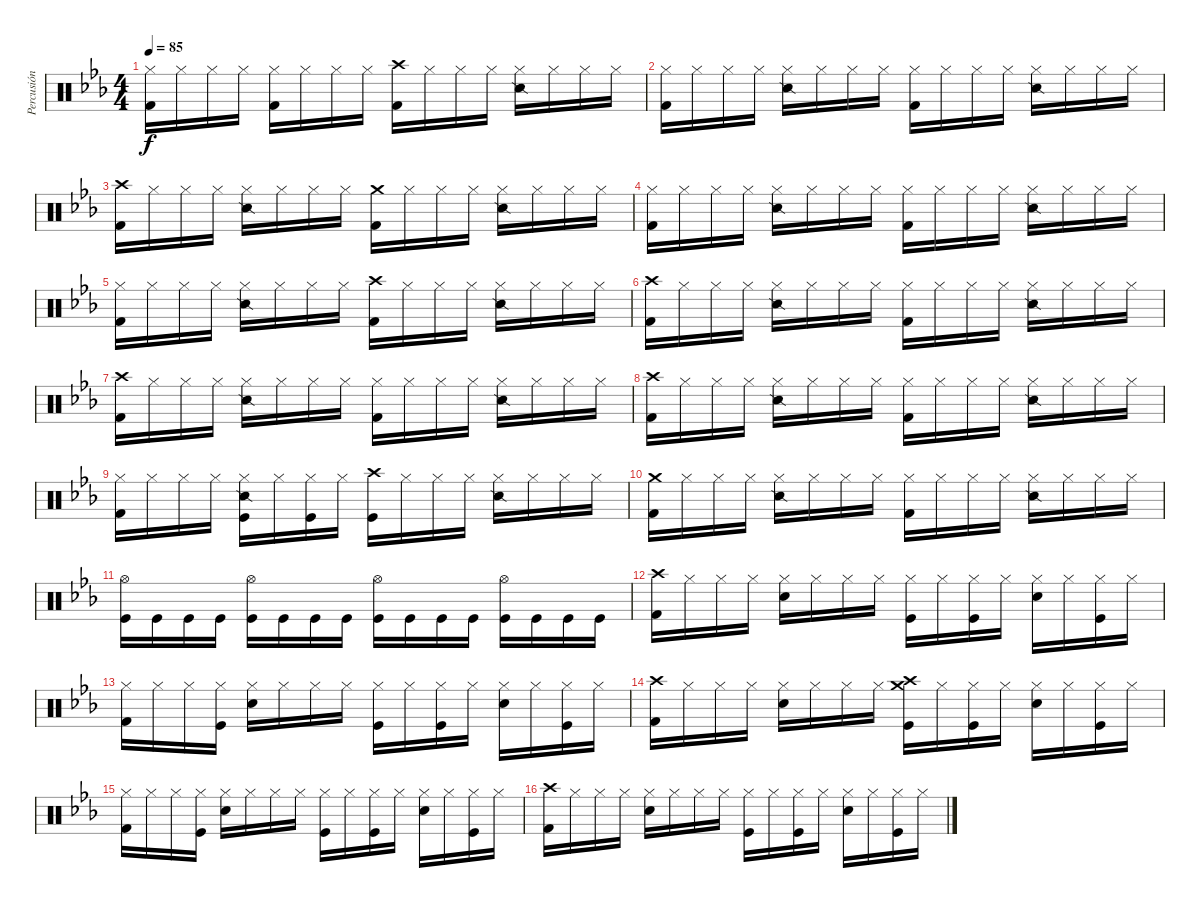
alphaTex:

\track ("Percusión" "Percusión") {instrument percussion}
\staff {score}
\articulation defaults
\ts (4 4)
\tempo 85
\clef neutral
\ks eb
("Hi-Hat (closed)" "Kick (hit) 2").16{dy f} "Hi-Hat (closed)".16 "Hi-Hat (closed)".16 "Hi-Hat (closed)".16 ("Hi-Hat (closed)" "Kick (hit) 2").16 "Hi-Hat (closed)".16 "Hi-Hat (closed)".16 "Hi-Hat (closed)".16 ("Crash high (hit)" "Kick (hit) 2").16 "Hi-Hat (closed)".16 "Hi-Hat (closed)".16 "Hi-Hat (closed)".16 ("Hi-Hat (closed)" "Snare (side stick) 2").16 "Hi-Hat (closed)".16 "Hi-Hat (closed)".16 "Hi-Hat (closed)".16 |
("Hi-Hat (closed)" "Kick (hit) 2").16 "Hi-Hat (closed)".16 "Hi-Hat (closed)".16 "Hi-Hat (closed)".16 ("Hi-Hat (closed)" "Snare (side stick) 2").16 "Hi-Hat (closed)".16 "Hi-Hat (closed)".16 "Hi-Hat (closed)".16 ("Hi-Hat (closed)" "Kick (hit) 2").16 "Hi-Hat (closed)".16 "Hi-Hat (closed)".16 "Hi-Hat (closed)".16 ("Hi-Hat (closed)" "Snare (side stick) 2").16 "Hi-Hat (closed)".16 "Hi-Hat (closed)".16 "Hi-Hat (closed)".16 |
("Crash high (hit)" "Kick (hit) 2").16 "Hi-Hat (closed)".16 "Hi-Hat (closed)".16 "Hi-Hat (closed)".16 ("Hi-Hat (closed)" "Snare (side stick) 2").16 "Hi-Hat (closed)".16 "Hi-Hat (closed)".16 "Hi-Hat (closed)".16 ("Crash medium (hit)" "Kick (hit) 2").16 "Hi-Hat (closed)".16 "Hi-Hat (closed)".16 "Hi-Hat (closed)".16 ("Hi-Hat (closed)" "Snare (side stick) 2").16 "Hi-Hat (closed)".16 "Hi-Hat (closed)".16 "Hi-Hat (closed)".16 |
("Hi-Hat (closed)" "Kick (hit) 2").16 "Hi-Hat (closed)".16 "Hi-Hat (closed)".16 "Hi-Hat (closed)".16 ("Hi-Hat (closed)" "Snare (side stick) 2").16 "Hi-Hat (closed)".16 "Hi-Hat (closed)".16 "Hi-Hat (closed)".16 ("Hi-Hat (closed)" "Kick (hit) 2").16 "Hi-Hat (closed)".16 "Hi-Hat (closed)".16 "Hi-Hat (closed)".16 ("Hi-Hat (closed)" "Snare (side stick) 2").16 "Hi-Hat (closed)".16 "Hi-Hat (closed)".16 "Hi-Hat (closed)".16 |
("Hi-Hat (closed)" "Kick (hit) 2").16 "Hi-Hat (closed)".16 "Hi-Hat (closed)".16 "Hi-Hat (closed)".16 ("Hi-Hat (closed)" "Snare (side stick) 2").16 "Hi-Hat (closed)".16 "Hi-Hat (closed)".16 "Hi-Hat (closed)".16 ("Crash high (hit)" "Kick (hit) 2").16 "Hi-Hat (closed)".16 "Hi-Hat (closed)".16 "Hi-Hat (closed)".16 ("Hi-Hat (closed)" "Snare (side stick) 2").16 "Hi-Hat (closed)".16 "Hi-Hat (closed)".16 "Hi-Hat (closed)".16 |
("Crash high (hit)" "Kick (hit) 2").16 "Hi-Hat (closed)".16 "Hi-Hat (closed)".16 "Hi-Hat (closed)".16 ("Hi-Hat (closed)" "Snare (side stick) 2").16 "Hi-Hat (closed)".16 "Hi-Hat (closed)".16 "Hi-Hat (closed)".16 ("Hi-Hat (closed)" "Kick (hit) 2").16 "Hi-Hat (closed)".16 "Hi-Hat (closed)".16 "Hi-Hat (closed)".16 ("Hi-Hat (closed)" "Snare (side stick) 2").16 "Hi-Hat (closed)".16 "Hi-Hat (closed)".16 "Hi-Hat (closed)".16 |
("Crash high (hit)" "Kick (hit) 2").16 "Hi-Hat (closed)".16 "Hi-Hat (closed)".16 "Hi-Hat (closed)".16 ("Hi-Hat (closed)" "Snare (side stick) 2").16 "Hi-Hat (closed)".16 "Hi-Hat (closed)".16 "Hi-Hat (closed)".16 ("Hi-Hat (closed)" "Kick (hit) 2").16 "Hi-Hat (closed)".16 "Hi-Hat (closed)".16 "Hi-Hat (closed)".16 ("Hi-Hat (closed)" "Snare (side stick) 2").16 "Hi-Hat (closed)".16 "Hi-Hat (closed)".16 "Hi-Hat (closed)".16 |
("Crash high (hit)" "Kick (hit) 2").16 "Hi-Hat (closed)".16 "Hi-Hat (closed)".16 "Hi-Hat (closed)".16 ("Hi-Hat (closed)" "Snare (side stick) 2").16 "Hi-Hat (closed)".16 "Hi-Hat (closed)".16 "Hi-Hat (closed)".16 ("Hi-Hat (closed)" "Kick (hit) 2").16 "Hi-Hat (closed)".16 "Hi-Hat (closed)".16 "Hi-Hat (closed)".16 ("Hi-Hat (closed)" "Snare (side stick) 2").16 "Hi-Hat (closed)".16 "Hi-Hat (closed)".16 "Hi-Hat (closed)".16 |
("Hi-Hat (closed)" "Kick (hit) 2").16 "Hi-Hat (closed)".16 "Hi-Hat (closed)".16 "Hi-Hat (closed)".16 ("Hi-Hat (closed)" "Snare (side stick) 2" "Kick (hit)").16 "Hi-Hat (closed)".16 ("Hi-Hat (closed)" "Kick (hit)").16 "Hi-Hat (closed)".16 ("Crash high (hit)" "Kick (hit)").16 "Hi-Hat (closed)".16 "Hi-Hat (closed)".16 "Hi-Hat (closed)".16 ("Hi-Hat (closed)" "Snare (side stick) 2").16 "Hi-Hat (closed)".16 "Hi-Hat (closed)".16 "Hi-Hat (closed)".16 |
("Crash medium (hit)" "Kick (hit) 2").16 "Hi-Hat (closed)".16 "Hi-Hat (closed)".16 "Hi-Hat (closed)".16 ("Hi-Hat (closed)" "Snare (side stick) 2").16 "Hi-Hat (closed)".16 "Hi-Hat (closed)".16 "Hi-Hat (closed)".16 ("Hi-Hat (closed)" "Kick (hit) 2").16 "Hi-Hat (closed)".16 "Hi-Hat (closed)".16 "Hi-Hat (closed)".16 ("Hi-Hat (closed)" "Snare (side stick) 2").16 "Hi-Hat (closed)".16 "Hi-Hat (closed)".16 "Hi-Hat (closed)".16 |
("Hi-Hat (open)" "Kick (hit)").16 "Kick (hit)".16 "Kick (hit)".16 "Kick (hit)".16 ("Hi-Hat (open)" "Kick (hit)").16 "Kick (hit)".16 "Kick (hit)".16 "Kick (hit)".16 ("Hi-Hat (open)" "Kick (hit)").16 "Kick (hit)".16 "Kick (hit)".16 "Kick (hit)".16 ("Hi-Hat (open)" "Kick (hit)").16 "Kick (hit)".16 "Kick (hit)".16 "Kick (hit)".16 |
("Crash high (hit)" "Kick (hit) 2").16 "Hi-Hat (closed)".16 "Hi-Hat (closed)".16 "Hi-Hat (closed)".16 ("Hi-Hat (closed)" "Snare (hit) 2").16 "Hi-Hat (closed)".16 "Hi-Hat (closed)".16 "Hi-Hat (closed)".16 ("Hi-Hat (closed)" "Kick (hit)").16 "Hi-Hat (closed)".16 ("Hi-Hat (closed)" "Kick (hit)").16 "Hi-Hat (closed)".16 ("Hi-Hat (closed)" "Snare (hit) 2").16 "Hi-Hat (closed)".16 ("Hi-Hat (closed)" "Kick (hit)").16 "Hi-Hat (closed)".16 |
("Hi-Hat (closed)" "Kick (hit) 2").16 "Hi-Hat (closed)".16 "Hi-Hat (closed)".16 ("Hi-Hat (closed)" "Kick (hit)").16 ("Hi-Hat (closed)" "Snare (hit) 2").16 "Hi-Hat (closed)".16 "Hi-Hat (closed)".16 "Hi-Hat (closed)".16 ("Hi-Hat (closed)" "Kick (hit)").16 "Hi-Hat (closed)".16 ("Hi-Hat (closed)" "Kick (hit)").16 "Hi-Hat (closed)".16 ("Hi-Hat (closed)" "Snare (hit) 2").16 "Hi-Hat (closed)".16 ("Hi-Hat (closed)" "Kick (hit)").16 "Hi-Hat (closed)".16 |
("Crash high (hit)" "Kick (hit) 2").16 "Hi-Hat (closed)".16 "Hi-Hat (closed)".16 "Hi-Hat (closed)".16 ("Hi-Hat (closed)" "Snare (hit) 2").16 "Hi-Hat (closed)".16 "Hi-Hat (closed)".16 "Hi-Hat (closed)".16 ("Crash high (hit)" "Crash medium (hit)" "Kick (hit)").16 "Hi-Hat (closed)".16 ("Hi-Hat (closed)" "Kick (hit)").16 "Hi-Hat (closed)".16 ("Hi-Hat (closed)" "Snare (hit) 2").16 "Hi-Hat (closed)".16 ("Hi-Hat (closed)" "Kick (hit)").16 "Hi-Hat (closed)".16 |
("Hi-Hat (closed)" "Kick (hit) 2").16 "Hi-Hat (closed)".16 "Hi-Hat (closed)".16 ("Hi-Hat (closed)" "Kick (hit)").16 ("Hi-Hat (closed)" "Snare (hit) 2").16 "Hi-Hat (closed)".16 "Hi-Hat (closed)".16 "Hi-Hat (closed)".16 ("Hi-Hat (closed)" "Kick (hit)").16 "Hi-Hat (closed)".16 ("Hi-Hat (closed)" "Kick (hit)").16 "Hi-Hat (closed)".16 ("Hi-Hat (closed)" "Snare (hit) 2").16 "Hi-Hat (closed)".16 ("Hi-Hat (closed)" "Kick (hit)").16 "Hi-Hat (closed)".16 |
("Crash high (hit)" "Kick (hit) 2").16 "Hi-Hat (closed)".16 "Hi-Hat (closed)".16 "Hi-Hat (closed)".16 ("Hi-Hat (closed)" "Snare (hit) 2").16 "Hi-Hat (closed)".16 "Hi-Hat (closed)".16 "Hi-Hat (closed)".16 ("Hi-Hat (closed)" "Kick (hit)").16 "Hi-Hat (closed)".16 ("Hi-Hat (closed)" "Kick (hit)").16 "Hi-Hat (closed)".16 ("Hi-Hat (closed)" "Snare (hit) 2").16 "Hi-Hat (closed)".16 ("Hi-Hat (closed)" "Kick (hit)").16 "Hi-Hat (closed)".16
